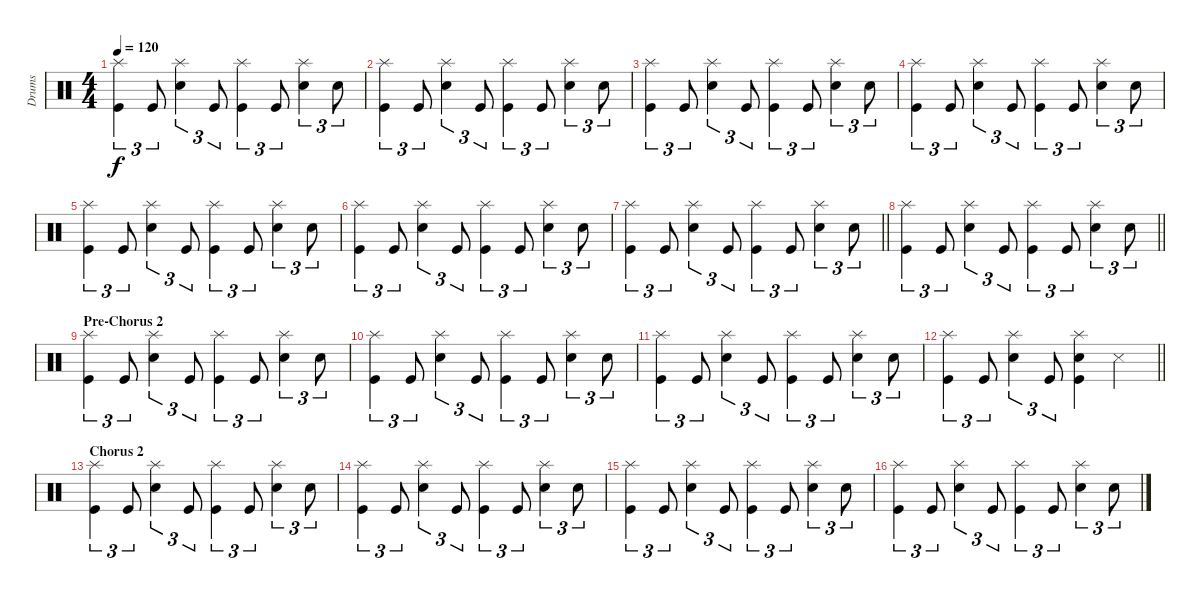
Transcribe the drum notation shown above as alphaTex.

\track ("Drums" "Drums") {instrument percussion}
\staff {score}
\articulation defaults
\ts (4 4)
\tempo 120
\clef neutral
\ks c
("Splash (hit)" "Kick (hit)").4{tu (3 2) dy f} "Kick (hit)".8{tu (3 2)} ("Splash (hit)" "Electric Snare (hit)").4{tu (3 2)} "Kick (hit)".8{tu (3 2)} ("Splash (hit)" "Kick (hit)").4{tu (3 2)} "Kick (hit)".8{tu (3 2)} ("Splash (hit)" "Electric Snare (hit)").4{tu (3 2)} "Electric Snare (hit)".8{tu (3 2)} |
("Splash (hit)" "Kick (hit)").4{tu (3 2)} "Kick (hit)".8{tu (3 2)} ("Splash (hit)" "Electric Snare (hit)").4{tu (3 2)} "Kick (hit)".8{tu (3 2)} ("Splash (hit)" "Kick (hit)").4{tu (3 2)} "Kick (hit)".8{tu (3 2)} ("Splash (hit)" "Electric Snare (hit)").4{tu (3 2)} "Electric Snare (hit)".8{tu (3 2)} |
("Splash (hit)" "Kick (hit)").4{tu (3 2)} "Kick (hit)".8{tu (3 2)} ("Splash (hit)" "Electric Snare (hit)").4{tu (3 2)} "Kick (hit)".8{tu (3 2)} ("Splash (hit)" "Kick (hit)").4{tu (3 2)} "Kick (hit)".8{tu (3 2)} ("Splash (hit)" "Electric Snare (hit)").4{tu (3 2)} "Electric Snare (hit)".8{tu (3 2)} |
("Splash (hit)" "Kick (hit)").4{tu (3 2)} "Kick (hit)".8{tu (3 2)} ("Splash (hit)" "Electric Snare (hit)").4{tu (3 2)} "Kick (hit)".8{tu (3 2)} ("Splash (hit)" "Kick (hit)").4{tu (3 2)} "Kick (hit)".8{tu (3 2)} ("Splash (hit)" "Electric Snare (hit)").4{tu (3 2)} "Electric Snare (hit)".8{tu (3 2)} |
("Splash (hit)" "Kick (hit)").4{tu (3 2)} "Kick (hit)".8{tu (3 2)} ("Splash (hit)" "Electric Snare (hit)").4{tu (3 2)} "Kick (hit)".8{tu (3 2)} ("Splash (hit)" "Kick (hit)").4{tu (3 2)} "Kick (hit)".8{tu (3 2)} ("Splash (hit)" "Electric Snare (hit)").4{tu (3 2)} "Electric Snare (hit)".8{tu (3 2)} |
("Splash (hit)" "Kick (hit)").4{tu (3 2)} "Kick (hit)".8{tu (3 2)} ("Splash (hit)" "Electric Snare (hit)").4{tu (3 2)} "Kick (hit)".8{tu (3 2)} ("Splash (hit)" "Kick (hit)").4{tu (3 2)} "Kick (hit)".8{tu (3 2)} ("Splash (hit)" "Electric Snare (hit)").4{tu (3 2)} "Electric Snare (hit)".8{tu (3 2)} |
\barLineRight lightlight
("Splash (hit)" "Kick (hit)").4{tu (3 2)} "Kick (hit)".8{tu (3 2)} ("Splash (hit)" "Electric Snare (hit)").4{tu (3 2)} "Kick (hit)".8{tu (3 2)} ("Splash (hit)" "Kick (hit)").4{tu (3 2)} "Kick (hit)".8{tu (3 2)} ("Splash (hit)" "Electric Snare (hit)").4{tu (3 2)} "Electric Snare (hit)".8{tu (3 2)} |
\barLineRight lightlight
("Splash (hit)" "Kick (hit)").4{tu (3 2)} "Kick (hit)".8{tu (3 2)} ("Splash (hit)" "Electric Snare (hit)").4{tu (3 2)} "Kick (hit)".8{tu (3 2)} ("Splash (hit)" "Kick (hit)").4{tu (3 2)} "Kick (hit)".8{tu (3 2)} ("Splash (hit)" "Electric Snare (hit)").4{tu (3 2)} "Electric Snare (hit)".8{tu (3 2)} |
\section ("" "Pre-Chorus 2")
("Splash (hit)" "Kick (hit)").4{tu (3 2)} "Kick (hit)".8{tu (3 2)} ("Splash (hit)" "Electric Snare (hit)").4{tu (3 2)} "Kick (hit)".8{tu (3 2)} ("Splash (hit)" "Kick (hit)").4{tu (3 2)} "Kick (hit)".8{tu (3 2)} ("Splash (hit)" "Electric Snare (hit)").4{tu (3 2)} "Electric Snare (hit)".8{tu (3 2)} |
("Splash (hit)" "Kick (hit)").4{tu (3 2)} "Kick (hit)".8{tu (3 2)} ("Splash (hit)" "Electric Snare (hit)").4{tu (3 2)} "Kick (hit)".8{tu (3 2)} ("Splash (hit)" "Kick (hit)").4{tu (3 2)} "Kick (hit)".8{tu (3 2)} ("Splash (hit)" "Electric Snare (hit)").4{tu (3 2)} "Electric Snare (hit)".8{tu (3 2)} |
("Splash (hit)" "Kick (hit)").4{tu (3 2)} "Kick (hit)".8{tu (3 2)} ("Splash (hit)" "Electric Snare (hit)").4{tu (3 2)} "Kick (hit)".8{tu (3 2)} ("Splash (hit)" "Kick (hit)").4{tu (3 2)} "Kick (hit)".8{tu (3 2)} ("Splash (hit)" "Electric Snare (hit)").4{tu (3 2)} "Electric Snare (hit)".8{tu (3 2)} |
\barLineRight lightlight
("Splash (hit)" "Kick (hit)").4{tu (3 2)} "Kick (hit)".8{tu (3 2)} ("Splash (hit)" "Electric Snare (hit)").4{tu (3 2)} "Kick (hit)".8{tu (3 2)} ("Splash (hit)" "Electric Snare (hit)" "Kick (hit)").4 "Metronome (hit)".4 |
\section ("" "Chorus 2")
("Splash (hit)" "Kick (hit)").4{tu (3 2)} "Kick (hit)".8{tu (3 2)} ("Splash (hit)" "Electric Snare (hit)").4{tu (3 2)} "Kick (hit)".8{tu (3 2)} ("Splash (hit)" "Kick (hit)").4{tu (3 2)} "Kick (hit)".8{tu (3 2)} ("Splash (hit)" "Electric Snare (hit)").4{tu (3 2)} "Electric Snare (hit)".8{tu (3 2)} |
("Splash (hit)" "Kick (hit)").4{tu (3 2)} "Kick (hit)".8{tu (3 2)} ("Splash (hit)" "Electric Snare (hit)").4{tu (3 2)} "Kick (hit)".8{tu (3 2)} ("Splash (hit)" "Kick (hit)").4{tu (3 2)} "Kick (hit)".8{tu (3 2)} ("Splash (hit)" "Electric Snare (hit)").4{tu (3 2)} "Electric Snare (hit)".8{tu (3 2)} |
("Splash (hit)" "Kick (hit)").4{tu (3 2)} "Kick (hit)".8{tu (3 2)} ("Splash (hit)" "Electric Snare (hit)").4{tu (3 2)} "Kick (hit)".8{tu (3 2)} ("Splash (hit)" "Kick (hit)").4{tu (3 2)} "Kick (hit)".8{tu (3 2)} ("Splash (hit)" "Electric Snare (hit)").4{tu (3 2)} "Electric Snare (hit)".8{tu (3 2)} |
("Splash (hit)" "Kick (hit)").4{tu (3 2)} "Kick (hit)".8{tu (3 2)} ("Splash (hit)" "Electric Snare (hit)").4{tu (3 2)} "Kick (hit)".8{tu (3 2)} ("Splash (hit)" "Kick (hit)").4{tu (3 2)} "Kick (hit)".8{tu (3 2)} ("Splash (hit)" "Electric Snare (hit)").4{tu (3 2)} "Electric Snare (hit)".8{tu (3 2)}
